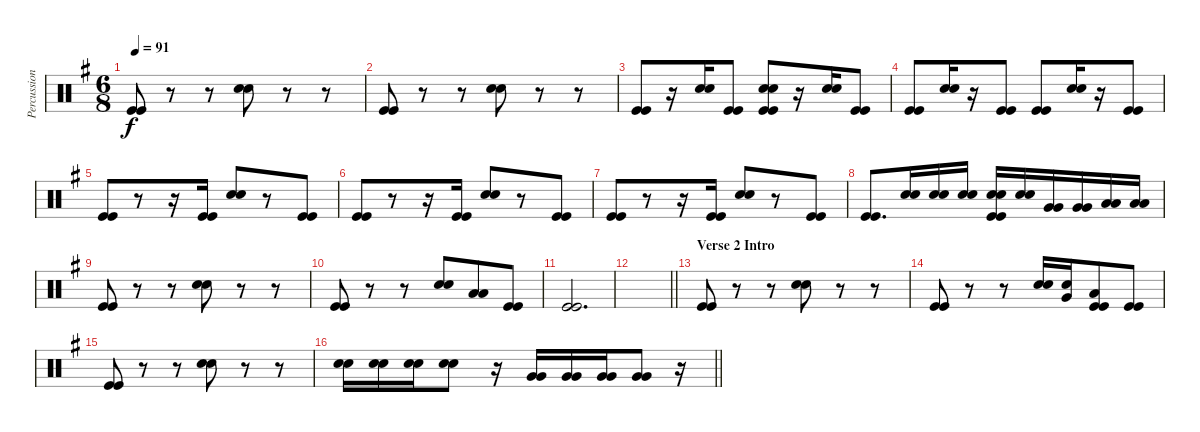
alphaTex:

\track ("Percussion (For Volume)" "Percussion") {instrument percussion}
\staff {score}
\articulation defaults
\ts (6 8)
\tempo 91
\clef neutral
\ks eminor
("Kick (hit)" "Kick (hit)").8{dy f} r.8 r.8 ("Electric Snare (hit)" "Electric Snare (hit)").8 r.8 r.8 |
("Kick (hit)" "Kick (hit)").8 r.8 r.8 ("Electric Snare (hit)" "Electric Snare (hit)").8 r.8 r.8 |
("Kick (hit)" "Kick (hit)").8 r.16 ("Electric Snare (hit)" "Electric Snare (hit)").16 ("Kick (hit)" "Kick (hit)").8 ("Electric Snare (hit)" "Electric Snare (hit)" "Kick (hit)" "Kick (hit)").8 r.16 ("Electric Snare (hit)" "Electric Snare (hit)").16 ("Kick (hit)" "Kick (hit)").8 |
("Kick (hit)" "Kick (hit)").8 ("Electric Snare (hit)" "Electric Snare (hit)").16 r.16 ("Kick (hit)" "Kick (hit)").8 ("Kick (hit)" "Kick (hit)").8 ("Electric Snare (hit)" "Electric Snare (hit)").16 r.16 ("Kick (hit)" "Kick (hit)").8 |
("Kick (hit)" "Kick (hit)").8 r.8 r.16 ("Kick (hit)" "Kick (hit)").16 ("Electric Snare (hit)" "Electric Snare (hit)").8 r.8 ("Kick (hit)" "Kick (hit)").8 |
("Kick (hit)" "Kick (hit)").8 r.8 r.16 ("Kick (hit)" "Kick (hit)").16 ("Electric Snare (hit)" "Electric Snare (hit)").8 r.8 ("Kick (hit)" "Kick (hit)").8 |
("Kick (hit)" "Kick (hit)").8 r.8 r.16 ("Kick (hit)" "Kick (hit)").16 ("Electric Snare (hit)" "Electric Snare (hit)").8 r.8 ("Kick (hit)" "Kick (hit)").8 |
("Kick (hit)" "Kick (hit)").8{d} ("Electric Snare (hit)" "Electric Snare (hit)").16 ("Electric Snare (hit)" "Electric Snare (hit)").16 ("Electric Snare (hit)" "Electric Snare (hit)").16 ("Electric Snare (hit)" "Electric Snare (hit)" "Kick (hit)" "Kick (hit)").16 ("Electric Snare (hit)" "Electric Snare (hit)").16 ("Very Low Tom (hit)" "Very Low Tom (hit)").16 ("Very Low Tom (hit)" "Very Low Tom (hit)").16 ("Low Floor Tom (hit)" "Low Floor Tom (hit)").16 ("Low Floor Tom (hit)" "Low Floor Tom (hit)").16 |
("Kick (hit)" "Kick (hit)").8 r.8 r.8 ("Electric Snare (hit)" "Electric Snare (hit)").8 r.8 r.8 |
("Kick (hit)" "Kick (hit)").8 r.8 r.8 ("Electric Snare (hit)" "Electric Snare (hit)").8 ("Low Floor Tom (hit)" "Low Floor Tom (hit)").8 ("Kick (hit)" "Kick (hit)").8 |
("Kick (hit)" "Kick (hit)").2{d} |
\barLineRight lightlight
|
\section ("" "Verse 2 Intro")
("Kick (hit)" "Kick (hit)").8 r.8 r.8 ("Electric Snare (hit)" "Electric Snare (hit)").8 r.8 r.8 |
("Kick (hit)" "Kick (hit)").8 r.8 r.8 ("Electric Snare (hit)" "Electric Snare (hit)").16 ("Electric Snare (hit)" "Very Low Tom (hit)").16 ("Low Floor Tom (hit)" "Kick (hit)" "Kick (hit)").8 ("Kick (hit)" "Kick (hit)").8 |
("Kick (hit)" "Kick (hit)").8 r.8 r.8 ("Electric Snare (hit)" "Electric Snare (hit)").8 r.8 r.8 |
\barLineRight lightlight
("Electric Snare (hit)" "Electric Snare (hit)").16 ("Electric Snare (hit)" "Electric Snare (hit)").16 ("Electric Snare (hit)" "Electric Snare (hit)").16 ("Electric Snare (hit)" "Electric Snare (hit)").8 r.16 ("Very Low Tom (hit)" "Very Low Tom (hit)").16 ("Very Low Tom (hit)" "Very Low Tom (hit)").16 ("Very Low Tom (hit)" "Very Low Tom (hit)").16 ("Very Low Tom (hit)" "Very Low Tom (hit)").8 r.16
